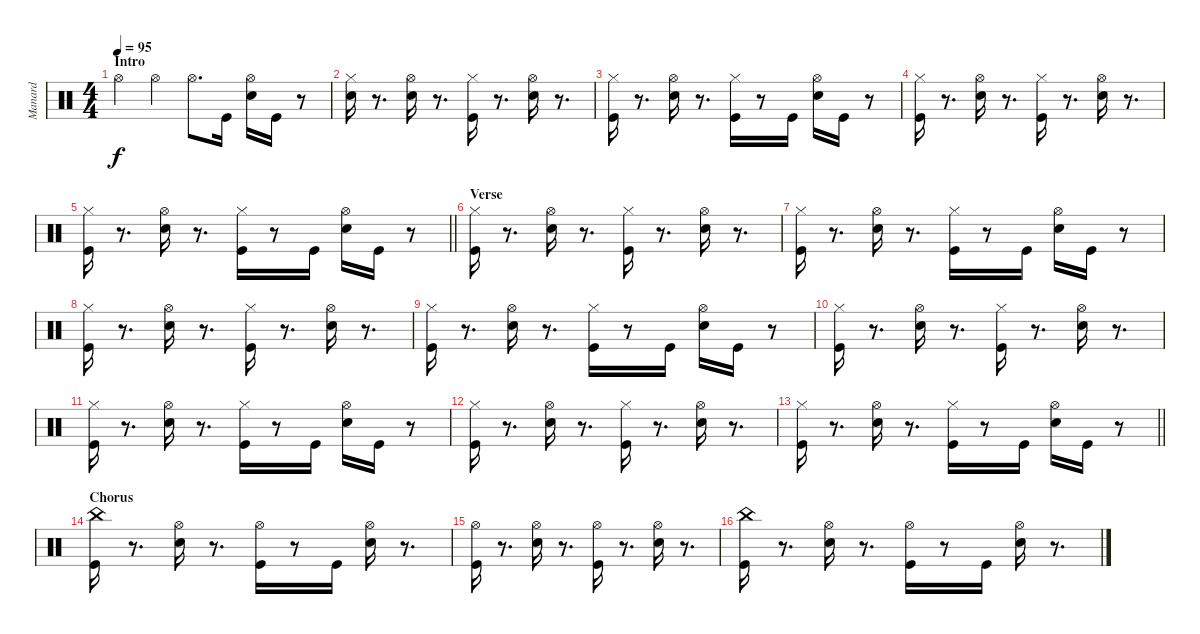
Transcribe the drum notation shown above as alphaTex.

\track ("Manard" "Manard") {instrument percussion}
\staff {score}
\articulation defaults
\ts (4 4)
\section ("" "Intro")
\tempo 95
\clef neutral
\ks c "Hi-Hat (open)".4{dy f} "Hi-Hat (open)".4 "Hi-Hat (open)".8{d} "Kick (hit)".16
("Hi-Hat (open)" "Snare (hit) 2").16 "Kick (hit)".16 r.8 |
("Hi-Hat (closed)" "Snare (hit)").16 r.8{d} ("Hi-Hat (open)" "Snare (hit) 2").16 r.8{d} ("Hi-Hat (closed)" "Kick (hit)").16 r.8{d} ("Hi-Hat (open)" "Snare (hit) 2").16 r.8{d} |
("Hi-Hat (closed)" "Kick (hit)").16 r.8{d} ("Hi-Hat (open)" "Snare (hit) 2").16 r.8{d} ("Hi-Hat (closed)" "Kick (hit)").16 r.8 "Kick (hit)".16 ("Hi-Hat (open)" "Snare (hit) 2").16 "Kick (hit)".16 r.8 |
("Hi-Hat (closed)" "Kick (hit)").16 r.8{d} ("Hi-Hat (open)" "Snare (hit) 2").16 r.8{d} ("Hi-Hat (closed)" "Kick (hit)").16 r.8{d} ("Hi-Hat (open)" "Snare (hit) 2").16 r.8{d} |
\barLineRight lightlight
("Hi-Hat (closed)" "Kick (hit)").16 r.8{d} ("Hi-Hat (open)" "Snare (hit) 2").16 r.8{d} ("Hi-Hat (closed)" "Kick (hit)").16 r.8 "Kick (hit)".16 ("Hi-Hat (open)" "Snare (hit) 2").16 "Kick (hit)".16 r.8 |
\section ("" "Verse")
("Hi-Hat (closed)" "Kick (hit)").16 r.8{d} ("Hi-Hat (open)" "Snare (hit) 2").16 r.8{d} ("Hi-Hat (closed)" "Kick (hit)").16 r.8{d} ("Hi-Hat (open)" "Snare (hit) 2").16 r.8{d} |
("Hi-Hat (closed)" "Kick (hit)").16 r.8{d} ("Hi-Hat (open)" "Snare (hit) 2").16 r.8{d} ("Hi-Hat (closed)" "Kick (hit)").16 r.8 "Kick (hit)".16 ("Hi-Hat (open)" "Snare (hit) 2").16 "Kick (hit)".16 r.8 |
("Hi-Hat (closed)" "Kick (hit)").16 r.8{d} ("Hi-Hat (open)" "Snare (hit) 2").16 r.8{d} ("Hi-Hat (closed)" "Kick (hit)").16 r.8{d} ("Hi-Hat (open)" "Snare (hit) 2").16 r.8{d} |
("Hi-Hat (closed)" "Kick (hit)").16 r.8{d} ("Hi-Hat (open)" "Snare (hit) 2").16 r.8{d} ("Hi-Hat (closed)" "Kick (hit)").16 r.8 "Kick (hit)".16 ("Hi-Hat (open)" "Snare (hit) 2").16 "Kick (hit)".16 r.8 |
("Hi-Hat (closed)" "Kick (hit)").16 r.8{d} ("Hi-Hat (open)" "Snare (hit) 2").16 r.8{d} ("Hi-Hat (closed)" "Kick (hit)").16 r.8{d} ("Hi-Hat (open)" "Snare (hit) 2").16 r.8{d} |
("Hi-Hat (closed)" "Kick (hit)").16 r.8{d} ("Hi-Hat (open)" "Snare (hit) 2").16 r.8{d} ("Hi-Hat (closed)" "Kick (hit)").16 r.8 "Kick (hit)".16 ("Hi-Hat (open)" "Snare (hit) 2").16 "Kick (hit)".16 r.8 |
("Hi-Hat (closed)" "Kick (hit)").16 r.8{d} ("Hi-Hat (open)" "Snare (hit) 2").16 r.8{d} ("Hi-Hat (closed)" "Kick (hit)").16 r.8{d} ("Hi-Hat (open)" "Snare (hit) 2").16 r.8{d} |
\barLineRight lightlight
("Hi-Hat (closed)" "Kick (hit)").16 r.8{d} ("Hi-Hat (open)" "Snare (hit) 2").16 r.8{d} ("Hi-Hat (closed)" "Kick (hit)").16 r.8 "Kick (hit)".16 ("Hi-Hat (open)" "Snare (hit) 2").16 "Kick (hit)".16 r.8 |
\section ("" "Chorus")
("China (hit)" "Kick (hit)").16 r.8{d} ("Hi-Hat (open)" "Snare (hit) 2").16 r.8{d} ("Hi-Hat (open)" "Kick (hit)").16 r.8 "Kick (hit)".16 ("Hi-Hat (open)" "Snare (hit) 2").16 r.8{d} |
("Hi-Hat (open)" "Kick (hit)").16 r.8{d} ("Hi-Hat (open)" "Snare (hit) 2").16 r.8{d} ("Hi-Hat (open)" "Kick (hit)").16 r.8{d} ("Hi-Hat (open)" "Snare (hit) 2").16 r.8{d} |
("China (hit)" "Kick (hit)").16 r.8{d} ("Hi-Hat (open)" "Snare (hit) 2").16 r.8{d} ("Hi-Hat (open)" "Kick (hit)").16 r.8 "Kick (hit)".16 ("Hi-Hat (open)" "Snare (hit) 2").16 r.8{d}
